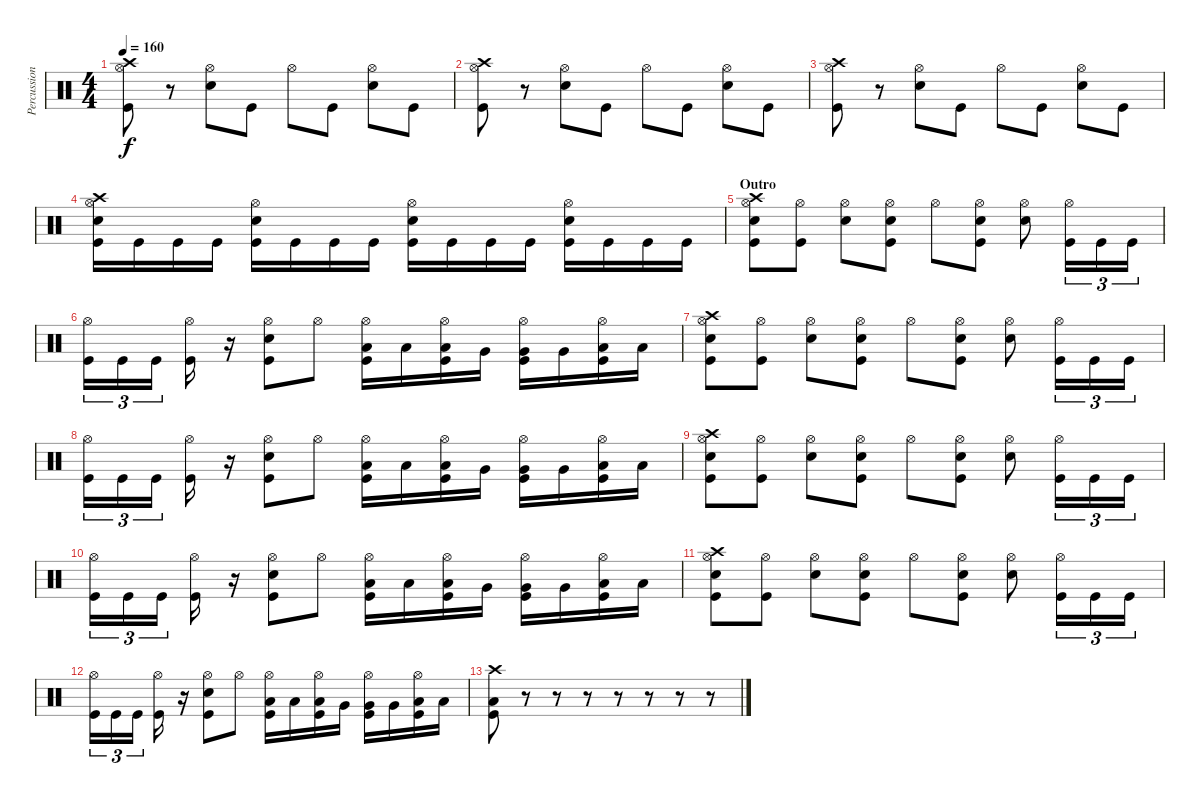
\track ("Percussion" "Percussion") {instrument percussion}
\staff {score}
\articulation defaults
\ts (4 4)
\tempo 160
\clef neutral
\ks c
("Crash high (hit)" "Hi-Hat (open)" "Kick (hit)").8{dy f} r.8 ("Electric Snare (hit)" "Hi-Hat (open)").8 "Kick (hit)".8 "Hi-Hat (open)".8 "Kick (hit)".8 ("Hi-Hat (open)" "Electric Snare (hit)").8 "Kick (hit)".8 |
("Crash high (hit)" "Hi-Hat (open)" "Kick (hit)").8 r.8 ("Electric Snare (hit)" "Hi-Hat (open)").8 "Kick (hit)".8 "Hi-Hat (open)".8 "Kick (hit)".8 ("Hi-Hat (open)" "Electric Snare (hit)").8 "Kick (hit)".8 |
("Crash high (hit)" "Hi-Hat (open)" "Kick (hit)").8 r.8 ("Electric Snare (hit)" "Hi-Hat (open)").8 "Kick (hit)".8 "Hi-Hat (open)".8 "Kick (hit)".8 ("Hi-Hat (open)" "Electric Snare (hit)").8 "Kick (hit)".8 |
("Crash high (hit)" "Hi-Hat (open)" "Electric Snare (hit)" "Kick (hit)").16 "Kick (hit)".16 "Kick (hit)".16 "Kick (hit)".16 ("Hi-Hat (open)" "Electric Snare (hit)" "Kick (hit)").16 "Kick (hit)".16 "Kick (hit)".16 "Kick (hit)".16 ("Hi-Hat (open)" "Electric Snare (hit)" "Kick (hit)").16 "Kick (hit)".16 "Kick (hit)".16 "Kick (hit)".16 ("Hi-Hat (open)" "Electric Snare (hit)" "Kick (hit)").16 "Kick (hit)".16 "Kick (hit)".16 "Kick (hit)".16 |
\section ("" "Outro")
("Crash high (hit)" "Hi-Hat (open)" "Electric Snare (hit)" "Kick (hit)").8 ("Hi-Hat (open)" "Kick (hit)").8 ("Hi-Hat (open)" "Electric Snare (hit)").8 ("Hi-Hat (open)" "Electric Snare (hit)" "Kick (hit)").8 "Hi-Hat (open)".8 ("Hi-Hat (open)" "Electric Snare (hit)" "Kick (hit)").8 ("Hi-Hat (open)" "Electric Snare (hit)").8 ("Hi-Hat (open)" "Kick (hit)").16{tu (3 2)} "Kick (hit)".16{tu (3 2)} "Kick (hit)".16{tu (3 2)} |
("Hi-Hat (open)" "Kick (hit)").16{tu (3 2)} "Kick (hit)".16{tu (3 2)} "Kick (hit)".16{tu (3 2)} ("Hi-Hat (open)" "Kick (hit)").16 r.16 ("Hi-Hat (open)" "Electric Snare (hit)" "Kick (hit)").8 "Hi-Hat (open)".8 ("Hi-Hat (open)" "Low Tom (hit)" "Kick (hit)").16 "Low Tom (hit)".16 ("Hi-Hat (open)" "Low Tom (hit)" "Kick (hit)").16 "Very Low Tom (hit)".16 ("Hi-Hat (open)" "Very Low Tom (hit)" "Kick (hit)").16 "Very Low Tom (hit)".16 ("Hi-Hat (open)" "Low Floor Tom (hit)" "Kick (hit)").16 "Low Floor Tom (hit)".16 |
("Crash high (hit)" "Hi-Hat (open)" "Electric Snare (hit)" "Kick (hit)").8 ("Hi-Hat (open)" "Kick (hit)").8 ("Hi-Hat (open)" "Electric Snare (hit)").8 ("Hi-Hat (open)" "Electric Snare (hit)" "Kick (hit)").8 "Hi-Hat (open)".8 ("Hi-Hat (open)" "Electric Snare (hit)" "Kick (hit)").8 ("Hi-Hat (open)" "Electric Snare (hit)").8 ("Hi-Hat (open)" "Kick (hit)").16{tu (3 2)} "Kick (hit)".16{tu (3 2)} "Kick (hit)".16{tu (3 2)} |
("Hi-Hat (open)" "Kick (hit)").16{tu (3 2)} "Kick (hit)".16{tu (3 2)} "Kick (hit)".16{tu (3 2)} ("Hi-Hat (open)" "Kick (hit)").16 r.16 ("Hi-Hat (open)" "Electric Snare (hit)" "Kick (hit)").8 "Hi-Hat (open)".8 ("Hi-Hat (open)" "Low Tom (hit)" "Kick (hit)").16 "Low Tom (hit)".16 ("Hi-Hat (open)" "Low Tom (hit)" "Kick (hit)").16 "Very Low Tom (hit)".16 ("Hi-Hat (open)" "Very Low Tom (hit)" "Kick (hit)").16 "Very Low Tom (hit)".16 ("Hi-Hat (open)" "Low Floor Tom (hit)" "Kick (hit)").16 "Low Floor Tom (hit)".16 |
("Crash high (hit)" "Hi-Hat (open)" "Electric Snare (hit)" "Kick (hit)").8 ("Hi-Hat (open)" "Kick (hit)").8 ("Hi-Hat (open)" "Electric Snare (hit)").8 ("Hi-Hat (open)" "Electric Snare (hit)" "Kick (hit)").8 "Hi-Hat (open)".8 ("Hi-Hat (open)" "Electric Snare (hit)" "Kick (hit)").8 ("Hi-Hat (open)" "Electric Snare (hit)").8 ("Hi-Hat (open)" "Kick (hit)").16{tu (3 2)} "Kick (hit)".16{tu (3 2)} "Kick (hit)".16{tu (3 2)} |
("Hi-Hat (open)" "Kick (hit)").16{tu (3 2)} "Kick (hit)".16{tu (3 2)} "Kick (hit)".16{tu (3 2)} ("Hi-Hat (open)" "Kick (hit)").16 r.16 ("Hi-Hat (open)" "Electric Snare (hit)" "Kick (hit)").8 "Hi-Hat (open)".8 ("Hi-Hat (open)" "Low Tom (hit)" "Kick (hit)").16 "Low Tom (hit)".16 ("Hi-Hat (open)" "Low Tom (hit)" "Kick (hit)").16 "Very Low Tom (hit)".16 ("Hi-Hat (open)" "Very Low Tom (hit)" "Kick (hit)").16 "Very Low Tom (hit)".16 ("Hi-Hat (open)" "Low Floor Tom (hit)" "Kick (hit)").16 "Low Floor Tom (hit)".16 |
("Crash high (hit)" "Hi-Hat (open)" "Electric Snare (hit)" "Kick (hit)").8 ("Hi-Hat (open)" "Kick (hit)").8 ("Hi-Hat (open)" "Electric Snare (hit)").8 ("Hi-Hat (open)" "Electric Snare (hit)" "Kick (hit)").8 "Hi-Hat (open)".8 ("Hi-Hat (open)" "Electric Snare (hit)" "Kick (hit)").8 ("Hi-Hat (open)" "Electric Snare (hit)").8 ("Hi-Hat (open)" "Kick (hit)").16{tu (3 2)} "Kick (hit)".16{tu (3 2)} "Kick (hit)".16{tu (3 2)} |
("Hi-Hat (open)" "Kick (hit)").16{tu (3 2)} "Kick (hit)".16{tu (3 2)} "Kick (hit)".16{tu (3 2)} ("Hi-Hat (open)" "Kick (hit)").16 r.16 ("Hi-Hat (open)" "Electric Snare (hit)" "Kick (hit)").8 "Hi-Hat (open)".8 ("Hi-Hat (open)" "Low Tom (hit)" "Kick (hit)").16 "Low Tom (hit)".16 ("Hi-Hat (open)" "Low Tom (hit)" "Kick (hit)").16 "Very Low Tom (hit)".16 ("Hi-Hat (open)" "Very Low Tom (hit)" "Kick (hit)").16 "Very Low Tom (hit)".16 ("Hi-Hat (open)" "Low Floor Tom (hit)" "Kick (hit)").16 "Low Floor Tom (hit)".16 |
("Crash high (hit)" "Low Floor Tom (hit)" "Kick (hit)").8 r.8 r.8 r.8 r.8 r.8 r.8 r.8
